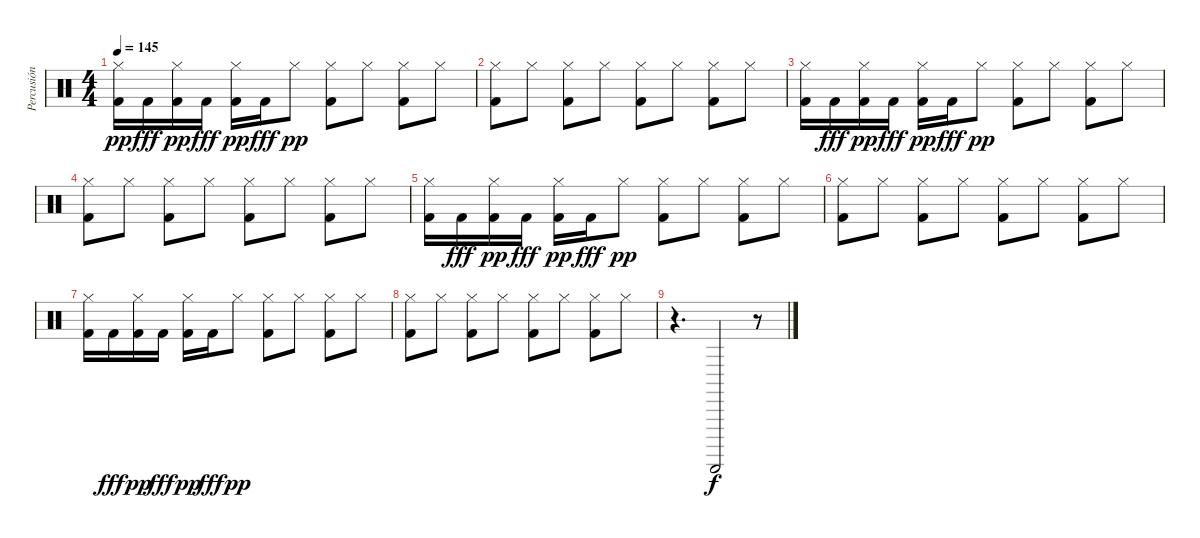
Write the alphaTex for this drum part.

\track ("Percusión" "Percusión") {instrument percussion}
\staff {score}
\articulation defaults
\ts (4 4)
\tempo 145
\clef neutral
\ks c
("Hi-Hat (closed)" "Kick (hit) 2").16{dy pp} "Kick (hit) 2".16{dy fff} ("Kick (hit) 2" "Hi-Hat (closed)").16{dy pp} "Kick (hit) 2".16{dy fff} ("Hi-Hat (closed)" "Kick (hit) 2").16{dy pp} "Kick (hit) 2".16{dy fff} "Hi-Hat (closed)".8{dy pp} ("Hi-Hat (closed)" "Kick (hit) 2").8 "Hi-Hat (closed)".8 ("Hi-Hat (closed)" "Kick (hit) 2").8 "Hi-Hat (closed)".8 |
("Hi-Hat (closed)" "Kick (hit) 2").8 "Hi-Hat (closed)".8 ("Hi-Hat (closed)" "Kick (hit) 2").8 "Hi-Hat (closed)".8 ("Hi-Hat (closed)" "Kick (hit) 2").8 "Hi-Hat (closed)".8 ("Hi-Hat (closed)" "Kick (hit) 2").8 "Hi-Hat (closed)".8 |
("Hi-Hat (closed)" "Kick (hit) 2").16 "Kick (hit) 2".16{dy fff} ("Kick (hit) 2" "Hi-Hat (closed)").16{dy pp} "Kick (hit) 2".16{dy fff} ("Hi-Hat (closed)" "Kick (hit) 2").16{dy pp} "Kick (hit) 2".16{dy fff} "Hi-Hat (closed)".8{dy pp} ("Hi-Hat (closed)" "Kick (hit) 2").8 "Hi-Hat (closed)".8 ("Hi-Hat (closed)" "Kick (hit) 2").8 "Hi-Hat (closed)".8 |
("Hi-Hat (closed)" "Kick (hit) 2").8 "Hi-Hat (closed)".8 ("Hi-Hat (closed)" "Kick (hit) 2").8 "Hi-Hat (closed)".8 ("Hi-Hat (closed)" "Kick (hit) 2").8 "Hi-Hat (closed)".8 ("Hi-Hat (closed)" "Kick (hit) 2").8 "Hi-Hat (closed)".8 |
("Hi-Hat (closed)" "Kick (hit) 2").16 "Kick (hit) 2".16{dy fff} ("Kick (hit) 2" "Hi-Hat (closed)").16{dy pp} "Kick (hit) 2".16{dy fff} ("Hi-Hat (closed)" "Kick (hit) 2").16{dy pp} "Kick (hit) 2".16{dy fff} "Hi-Hat (closed)".8{dy pp} ("Hi-Hat (closed)" "Kick (hit) 2").8 "Hi-Hat (closed)".8 ("Hi-Hat (closed)" "Kick (hit) 2").8 "Hi-Hat (closed)".8 |
("Hi-Hat (closed)" "Kick (hit) 2").8 "Hi-Hat (closed)".8 ("Hi-Hat (closed)" "Kick (hit) 2").8 "Hi-Hat (closed)".8 ("Hi-Hat (closed)" "Kick (hit) 2").8 "Hi-Hat (closed)".8 ("Hi-Hat (closed)" "Kick (hit) 2").8 "Hi-Hat (closed)".8 |
("Hi-Hat (closed)" "Kick (hit) 2").16 "Kick (hit) 2".16{dy fff} ("Kick (hit) 2" "Hi-Hat (closed)").16{dy pp} "Kick (hit) 2".16{dy fff} ("Hi-Hat (closed)" "Kick (hit) 2").16{dy pp} "Kick (hit) 2".16{dy fff} "Hi-Hat (closed)".8{dy pp} ("Hi-Hat (closed)" "Kick (hit) 2").8 "Hi-Hat (closed)".8 ("Hi-Hat (closed)" "Kick (hit) 2").8 "Hi-Hat (closed)".8 |
("Hi-Hat (closed)" "Kick (hit) 2").8 "Hi-Hat (closed)".8 ("Hi-Hat (closed)" "Kick (hit) 2").8 "Hi-Hat (closed)".8 ("Hi-Hat (closed)" "Kick (hit) 2").8 "Hi-Hat (closed)".8 ("Hi-Hat (closed)" "Kick (hit) 2").8 "Hi-Hat (closed)".8 |
r.4{d} "Guiro (scrap-return)".2{dy f} r.8
